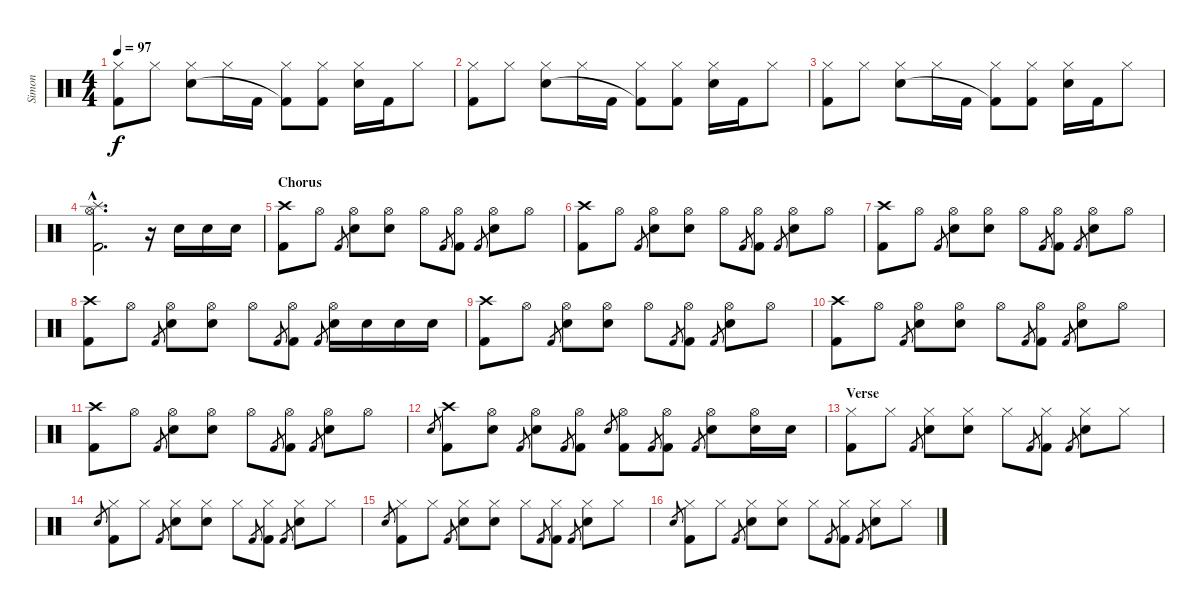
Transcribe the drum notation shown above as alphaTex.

\track ("Simon" "Simon") {instrument percussion}
\staff {score}
\articulation defaults
\ts (4 4)
\tempo 97
\clef neutral
\ks c
("Hi-Hat (closed)" "Kick (hit) 2").8{dy f} "Hi-Hat (closed)".8 ("Hi-Hat (closed)" "Electric Snare (hit)").8 "Hi-Hat (closed)".16 "Kick (hit) 2".16 ("Hi-Hat (closed)" "Kick (hit) 2"{t}).8 ("Hi-Hat (closed)" "Kick (hit) 2").8 ("Hi-Hat (closed)" "Electric Snare (hit)").16 "Kick (hit) 2".16 "Hi-Hat (closed)".8 |
("Hi-Hat (closed)" "Kick (hit) 2").8 "Hi-Hat (closed)".8 ("Hi-Hat (closed)" "Electric Snare (hit)").8 "Hi-Hat (closed)".16 "Kick (hit) 2".16 ("Hi-Hat (closed)" "Kick (hit) 2"{t}).8 ("Hi-Hat (closed)" "Kick (hit) 2").8 ("Hi-Hat (closed)" "Electric Snare (hit)").16 "Kick (hit) 2".16 "Hi-Hat (closed)".8 |
("Hi-Hat (closed)" "Kick (hit) 2").8 "Hi-Hat (closed)".8 ("Hi-Hat (closed)" "Electric Snare (hit)").8 "Hi-Hat (closed)".16 "Kick (hit) 2".16 ("Hi-Hat (closed)" "Kick (hit) 2"{t}).8 ("Hi-Hat (closed)" "Kick (hit) 2").8 ("Hi-Hat (closed)" "Electric Snare (hit)").16 "Kick (hit) 2".16 "Hi-Hat (closed)".8 |
("Splash (hit)"{hac} "Hi-Hat (open)"{hac} "Kick (hit) 2"{hac}).2{d} r.16 "Electric Snare (hit)".16 "Electric Snare (hit)".16 "Electric Snare (hit)".16 |
\section ("" "Chorus")
("Crash high (hit)" "Kick (hit) 2").8 "Hi-Hat (open)".8 "Kick (hit) 2".8{gr} ("Hi-Hat (open)" "Electric Snare (hit)").8 ("Hi-Hat (open)" "Electric Snare (hit)").8 "Hi-Hat (open)".8 "Kick (hit) 2".8{gr} ("Hi-Hat (open)" "Kick (hit) 2").8 "Kick (hit) 2".8{gr} ("Hi-Hat (open)" "Electric Snare (hit)").8 "Hi-Hat (open)".8 |
("Crash high (hit)" "Kick (hit) 2").8 "Hi-Hat (open)".8 "Kick (hit) 2".8{gr} ("Hi-Hat (open)" "Electric Snare (hit)").8 ("Hi-Hat (open)" "Electric Snare (hit)").8 "Hi-Hat (open)".8 "Kick (hit) 2".8{gr} ("Hi-Hat (open)" "Kick (hit) 2").8 "Kick (hit) 2".8{gr} ("Hi-Hat (open)" "Electric Snare (hit)").8 "Hi-Hat (open)".8 |
("Crash high (hit)" "Kick (hit) 2").8 "Hi-Hat (open)".8 "Kick (hit) 2".8{gr} ("Hi-Hat (open)" "Electric Snare (hit)").8 ("Hi-Hat (open)" "Electric Snare (hit)").8 "Hi-Hat (open)".8 "Kick (hit) 2".8{gr} ("Hi-Hat (open)" "Kick (hit) 2").8 "Kick (hit) 2".8{gr} ("Hi-Hat (open)" "Electric Snare (hit)").8 "Hi-Hat (open)".8 |
("Crash high (hit)" "Kick (hit) 2").8 "Hi-Hat (open)".8 "Kick (hit) 2".8{gr} ("Hi-Hat (open)" "Electric Snare (hit)").8 ("Hi-Hat (open)" "Electric Snare (hit)").8 "Hi-Hat (open)".8 "Kick (hit) 2".8{gr} ("Hi-Hat (open)" "Kick (hit) 2").8 "Kick (hit) 2".8{gr} ("Hi-Hat (open)" "Electric Snare (hit)").16 "Electric Snare (hit)".16 "Electric Snare (hit)".16 "Electric Snare (hit)".16 |
("Crash high (hit)" "Kick (hit) 2").8 "Hi-Hat (open)".8 "Kick (hit) 2".8{gr} ("Hi-Hat (open)" "Electric Snare (hit)").8 ("Hi-Hat (open)" "Electric Snare (hit)").8 "Hi-Hat (open)".8 "Kick (hit) 2".8{gr} ("Hi-Hat (open)" "Kick (hit) 2").8 "Kick (hit) 2".8{gr} ("Hi-Hat (open)" "Electric Snare (hit)").8 "Hi-Hat (open)".8 |
("Crash high (hit)" "Kick (hit) 2").8 "Hi-Hat (open)".8 "Kick (hit) 2".8{gr} ("Hi-Hat (open)" "Electric Snare (hit)").8 ("Hi-Hat (open)" "Electric Snare (hit)").8 "Hi-Hat (open)".8 "Kick (hit) 2".8{gr} ("Hi-Hat (open)" "Kick (hit) 2").8 "Kick (hit) 2".8{gr} ("Hi-Hat (open)" "Electric Snare (hit)").8 "Hi-Hat (open)".8 |
("Crash high (hit)" "Kick (hit) 2").8 "Hi-Hat (open)".8 "Kick (hit) 2".8{gr} ("Hi-Hat (open)" "Electric Snare (hit)").8 ("Hi-Hat (open)" "Electric Snare (hit)").8 "Hi-Hat (open)".8 "Kick (hit) 2".8{gr} ("Hi-Hat (open)" "Kick (hit) 2").8 "Kick (hit) 2".8{gr} ("Hi-Hat (open)" "Electric Snare (hit)").8 "Hi-Hat (open)".8 |
"Electric Snare (hit)".8{gr} ("Crash high (hit)" "Kick (hit) 2").8 ("Hi-Hat (open)" "Electric Snare (hit)").8 "Kick (hit) 2".8{gr} ("Hi-Hat (open)" "Electric Snare (hit)").8 "Kick (hit) 2".8{gr} ("Hi-Hat (open)" "Kick (hit) 2").8 "Electric Snare (hit)".8{gr} ("Hi-Hat (open)" "Kick (hit) 2").8 "Kick (hit) 2".8{gr} ("Hi-Hat (open)" "Kick (hit) 2").8 "Kick (hit) 2".8{gr} ("Hi-Hat (open)" "Electric Snare (hit)").8 ("Hi-Hat (open)" "Electric Snare (hit)").16 "Electric Snare (hit)".16 |
\section ("" "Verse")
("Hi-Hat (closed)" "Kick (hit) 2").8 "Hi-Hat (closed)".8 "Kick (hit) 2".8{gr} ("Hi-Hat (closed)" "Electric Snare (hit)").8 ("Hi-Hat (closed)" "Electric Snare (hit)").8 "Hi-Hat (closed)".8 "Kick (hit) 2".8{gr} ("Hi-Hat (closed)" "Kick (hit) 2").8 "Kick (hit) 2".8{gr} ("Hi-Hat (closed)" "Electric Snare (hit)").8 "Hi-Hat (closed)".8 |
"Electric Snare (hit)".8{gr} ("Hi-Hat (closed)" "Kick (hit) 2").8 "Hi-Hat (closed)".8 "Kick (hit) 2".8{gr} ("Hi-Hat (closed)" "Electric Snare (hit)").8 ("Hi-Hat (closed)" "Electric Snare (hit)").8 "Hi-Hat (closed)".8 "Kick (hit) 2".8{gr} ("Hi-Hat (closed)" "Kick (hit) 2").8 "Kick (hit) 2".8{gr} ("Hi-Hat (closed)" "Electric Snare (hit)").8 "Hi-Hat (closed)".8 |
"Electric Snare (hit)".8{gr} ("Hi-Hat (closed)" "Kick (hit) 2").8 "Hi-Hat (closed)".8 "Kick (hit) 2".8{gr} ("Hi-Hat (closed)" "Electric Snare (hit)").8 ("Hi-Hat (closed)" "Electric Snare (hit)").8 "Hi-Hat (closed)".8 "Kick (hit) 2".8{gr} ("Hi-Hat (closed)" "Kick (hit) 2").8 "Kick (hit) 2".8{gr} ("Hi-Hat (closed)" "Electric Snare (hit)").8 "Hi-Hat (closed)".8 |
"Electric Snare (hit)".8{gr} ("Hi-Hat (closed)" "Kick (hit) 2").8 "Hi-Hat (closed)".8 "Kick (hit) 2".8{gr} ("Hi-Hat (closed)" "Electric Snare (hit)").8 ("Hi-Hat (closed)" "Electric Snare (hit)").8 "Hi-Hat (closed)".8 "Kick (hit) 2".8{gr} ("Hi-Hat (closed)" "Kick (hit) 2").8 "Kick (hit) 2".8{gr} ("Hi-Hat (closed)" "Electric Snare (hit)").8 "Hi-Hat (closed)".8
